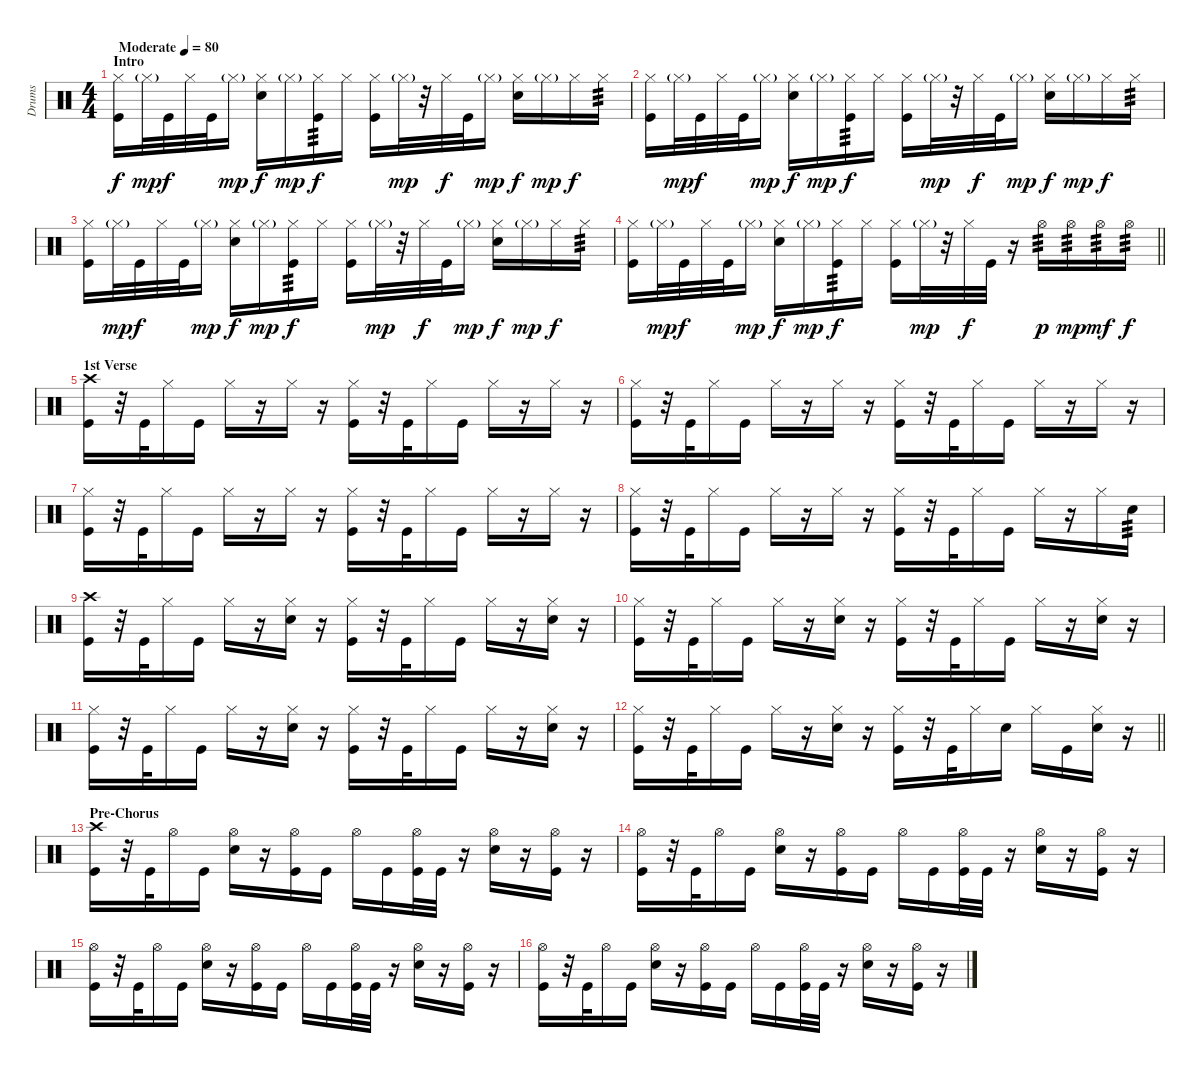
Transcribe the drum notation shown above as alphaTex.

\track ("Drums" "Drums") {instrument percussion}
\staff {score}
\articulation defaults
\ts (4 4)
\section ("" "Intro")
\tempo (80 "Moderate")
\clef neutral
\ks c
("Hi-Hat (closed)" "Kick (hit)").16{dy f} "Hi-Hat (closed)"{g}.32{dy mp} "Kick (hit)".32{dy f} "Hi-Hat (closed)".32 "Kick (hit)".32 "Hi-Hat (closed)"{g}.16{dy mp} ("Hi-Hat (closed)" "Electric Snare (hit)").16{dy f} "Hi-Hat (closed)"{g}.16{dy mp} ("Hi-Hat (closed)" "Kick (hit)").16{tp 3 dy f} "Hi-Hat (closed)".16 ("Hi-Hat (closed)" "Kick (hit)").16 "Hi-Hat (closed)"{g}.32{dy mp} r.32 "Hi-Hat (closed)".32{dy f} "Kick (hit)".32 "Hi-Hat (closed)"{g}.16{dy mp} ("Hi-Hat (closed)" "Electric Snare (hit)").16{dy f} "Hi-Hat (closed)"{g}.16{dy mp} "Hi-Hat (closed)".16{dy f} "Hi-Hat (closed)".16{tp 3} |
("Hi-Hat (closed)" "Kick (hit)").16 "Hi-Hat (closed)"{g}.32{dy mp} "Kick (hit)".32{dy f} "Hi-Hat (closed)".32 "Kick (hit)".32 "Hi-Hat (closed)"{g}.16{dy mp} ("Hi-Hat (closed)" "Electric Snare (hit)").16{dy f} "Hi-Hat (closed)"{g}.16{dy mp} ("Hi-Hat (closed)" "Kick (hit)").16{tp 3 dy f} "Hi-Hat (closed)".16 ("Hi-Hat (closed)" "Kick (hit)").16 "Hi-Hat (closed)"{g}.32{dy mp} r.32 "Hi-Hat (closed)".32{dy f} "Kick (hit)".32 "Hi-Hat (closed)"{g}.16{dy mp} ("Hi-Hat (closed)" "Electric Snare (hit)").16{dy f} "Hi-Hat (closed)"{g}.16{dy mp} "Hi-Hat (closed)".16{dy f} "Hi-Hat (closed)".16{tp 3} |
("Hi-Hat (closed)" "Kick (hit)").16 "Hi-Hat (closed)"{g}.32{dy mp} "Kick (hit)".32{dy f} "Hi-Hat (closed)".32 "Kick (hit)".32 "Hi-Hat (closed)"{g}.16{dy mp} ("Hi-Hat (closed)" "Electric Snare (hit)").16{dy f} "Hi-Hat (closed)"{g}.16{dy mp} ("Hi-Hat (closed)" "Kick (hit)").16{tp 3 dy f} "Hi-Hat (closed)".16 ("Hi-Hat (closed)" "Kick (hit)").16 "Hi-Hat (closed)"{g}.32{dy mp} r.32 "Hi-Hat (closed)".32{dy f} "Kick (hit)".32 "Hi-Hat (closed)"{g}.16{dy mp} ("Hi-Hat (closed)" "Electric Snare (hit)").16{dy f} "Hi-Hat (closed)"{g}.16{dy mp} "Hi-Hat (closed)".16{dy f} "Hi-Hat (closed)".16{tp 3} |
\barLineRight lightlight
("Hi-Hat (closed)" "Kick (hit)").16 "Hi-Hat (closed)"{g}.32{dy mp} "Kick (hit)".32{dy f} "Hi-Hat (closed)".32 "Kick (hit)".32 "Hi-Hat (closed)"{g}.16{dy mp} ("Hi-Hat (closed)" "Electric Snare (hit)").16{dy f} "Hi-Hat (closed)"{g}.16{dy mp} ("Hi-Hat (closed)" "Kick (hit)").16{tp 3 dy f} "Hi-Hat (closed)".16 ("Hi-Hat (closed)" "Kick (hit)").16 "Hi-Hat (closed)"{g}.32{dy mp} r.32 "Hi-Hat (closed)".32{dy f} "Kick (hit)".32 r.16 "Hi-Hat (open)".16{tp 3 dy p} "Hi-Hat (open)".16{tp 3 dy mp} "Hi-Hat (open)".16{tp 3 dy mf} "Hi-Hat (open)".16{tp 3 dy f} |
\section ("" "1st Verse")
("Crash high (hit)" "Kick (hit)").16 r.32 "Kick (hit)".32 "Hi-Hat (closed)".16 "Kick (hit)".16 "Hi-Hat (closed)".16 r.16 "Hi-Hat (closed)".16 r.16 ("Hi-Hat (closed)" "Kick (hit)").16 r.32 "Kick (hit)".32 "Hi-Hat (closed)".16 "Kick (hit)".16 "Hi-Hat (closed)".16 r.16 "Hi-Hat (closed)".16 r.16 |
("Hi-Hat (closed)" "Kick (hit)").16 r.32 "Kick (hit)".32 "Hi-Hat (closed)".16 "Kick (hit)".16 "Hi-Hat (closed)".16 r.16 "Hi-Hat (closed)".16 r.16 ("Hi-Hat (closed)" "Kick (hit)").16 r.32 "Kick (hit)".32 "Hi-Hat (closed)".16 "Kick (hit)".16 "Hi-Hat (closed)".16 r.16 "Hi-Hat (closed)".16 r.16 |
("Hi-Hat (closed)" "Kick (hit)").16 r.32 "Kick (hit)".32 "Hi-Hat (closed)".16 "Kick (hit)".16 "Hi-Hat (closed)".16 r.16 "Hi-Hat (closed)".16 r.16 ("Hi-Hat (closed)" "Kick (hit)").16 r.32 "Kick (hit)".32 "Hi-Hat (closed)".16 "Kick (hit)".16 "Hi-Hat (closed)".16 r.16 "Hi-Hat (closed)".16 r.16 |
("Hi-Hat (closed)" "Kick (hit)").16 r.32 "Kick (hit)".32 "Hi-Hat (closed)".16 "Kick (hit)".16 "Hi-Hat (closed)".16 r.16 "Hi-Hat (closed)".16 r.16 ("Hi-Hat (closed)" "Kick (hit)").16 r.32 "Kick (hit)".32 "Hi-Hat (closed)".16 "Kick (hit)".16 "Hi-Hat (closed)".16 r.16 "Hi-Hat (closed)".16 "Electric Snare (hit)".16{tp 3} |
("Crash high (hit)" "Kick (hit)").16 r.32 "Kick (hit)".32 "Hi-Hat (closed)".16 "Kick (hit)".16 "Hi-Hat (closed)".16 r.16 ("Hi-Hat (closed)" "Electric Snare (hit)").16 r.16 ("Hi-Hat (closed)" "Kick (hit)").16 r.32 "Kick (hit)".32 "Hi-Hat (closed)".16 "Kick (hit)".16 "Hi-Hat (closed)".16 r.16 ("Hi-Hat (closed)" "Electric Snare (hit)").16 r.16 |
("Hi-Hat (closed)" "Kick (hit)").16 r.32 "Kick (hit)".32 "Hi-Hat (closed)".16 "Kick (hit)".16 "Hi-Hat (closed)".16 r.16 ("Hi-Hat (closed)" "Electric Snare (hit)").16 r.16 ("Hi-Hat (closed)" "Kick (hit)").16 r.32 "Kick (hit)".32 "Hi-Hat (closed)".16 "Kick (hit)".16 "Hi-Hat (closed)".16 r.16 ("Hi-Hat (closed)" "Electric Snare (hit)").16 r.16 |
("Hi-Hat (closed)" "Kick (hit)").16 r.32 "Kick (hit)".32 "Hi-Hat (closed)".16 "Kick (hit)".16 "Hi-Hat (closed)".16 r.16 ("Hi-Hat (closed)" "Electric Snare (hit)").16 r.16 ("Hi-Hat (closed)" "Kick (hit)").16 r.32 "Kick (hit)".32 "Hi-Hat (closed)".16 "Kick (hit)".16 "Hi-Hat (closed)".16 r.16 ("Hi-Hat (closed)" "Electric Snare (hit)").16 r.16 |
\barLineRight lightlight
("Hi-Hat (closed)" "Kick (hit)").16 r.32 "Kick (hit)".32 "Hi-Hat (closed)".16 "Kick (hit)".16 "Hi-Hat (closed)".16 r.16 ("Hi-Hat (closed)" "Electric Snare (hit)").16 r.16 ("Hi-Hat (closed)" "Kick (hit)").16 r.32 "Kick (hit)".32 "Hi-Hat (closed)".16 "Electric Snare (hit)".16 "Hi-Hat (closed)".16 "Kick (hit)".16 ("Hi-Hat (closed)" "Electric Snare (hit)").16 r.16 |
\section ("" "Pre-Chorus")
("Crash high (hit)" "Kick (hit)").16 r.32 "Kick (hit)".32 "Hi-Hat (open)".16 "Kick (hit)".16 ("Hi-Hat (open)" "Electric Snare (hit)").16 r.16 ("Hi-Hat (open)" "Kick (hit)").16 "Kick (hit)".16 "Hi-Hat (open)".16 "Kick (hit)".16 ("Hi-Hat (open)" "Kick (hit)").32 "Kick (hit)".32 r.16 ("Hi-Hat (open)" "Electric Snare (hit)").16 r.16 ("Hi-Hat (open)" "Kick (hit)").16 r.16 |
("Hi-Hat (open)" "Kick (hit)").16 r.32 "Kick (hit)".32 "Hi-Hat (open)".16 "Kick (hit)".16 ("Hi-Hat (open)" "Electric Snare (hit)").16 r.16 ("Hi-Hat (open)" "Kick (hit)").16 "Kick (hit)".16 "Hi-Hat (open)".16 "Kick (hit)".16 ("Hi-Hat (open)" "Kick (hit)").32 "Kick (hit)".32 r.16 ("Hi-Hat (open)" "Electric Snare (hit)").16 r.16 ("Hi-Hat (open)" "Kick (hit)").16 r.16 |
("Hi-Hat (open)" "Kick (hit)").16 r.32 "Kick (hit)".32 "Hi-Hat (open)".16 "Kick (hit)".16 ("Hi-Hat (open)" "Electric Snare (hit)").16 r.16 ("Hi-Hat (open)" "Kick (hit)").16 "Kick (hit)".16 "Hi-Hat (open)".16 "Kick (hit)".16 ("Hi-Hat (open)" "Kick (hit)").32 "Kick (hit)".32 r.16 ("Hi-Hat (open)" "Electric Snare (hit)").16 r.16 ("Hi-Hat (open)" "Kick (hit)").16 r.16 |
("Hi-Hat (open)" "Kick (hit)").16 r.32 "Kick (hit)".32 "Hi-Hat (open)".16 "Kick (hit)".16 ("Hi-Hat (open)" "Electric Snare (hit)").16 r.16 ("Hi-Hat (open)" "Kick (hit)").16 "Kick (hit)".16 "Hi-Hat (open)".16 "Kick (hit)".16 ("Hi-Hat (open)" "Kick (hit)").32 "Kick (hit)".32 r.16 ("Hi-Hat (open)" "Electric Snare (hit)").16 r.16 ("Hi-Hat (open)" "Kick (hit)").16 r.16
